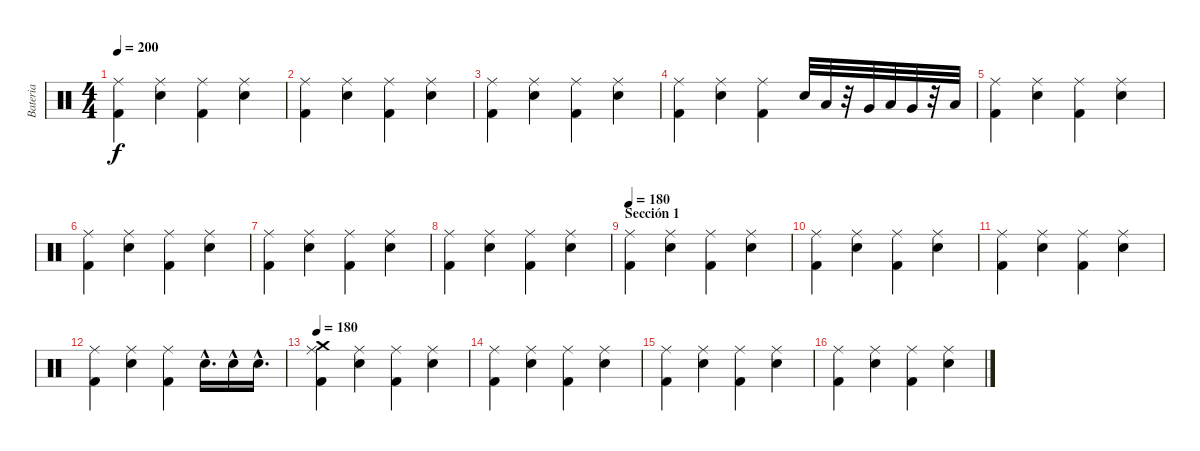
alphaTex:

\track ("Bateria" "Bateria") {instrument percussion}
\staff {score}
\articulation defaults
\ts (4 4)
\tempo 200
\clef neutral
\ks c
("Ride (middle)" "Kick (hit) 2").4{dy f} ("Ride (middle)" "Snare (hit) 2").4 ("Ride (middle)" "Kick (hit) 2").4 ("Ride (middle)" "Snare (hit) 2").4 |
("Ride (middle)" "Kick (hit) 2").4 ("Ride (middle)" "Snare (hit) 2").4 ("Ride (middle)" "Kick (hit) 2").4 ("Ride (middle)" "Snare (hit) 2").4 |
("Ride (middle)" "Kick (hit) 2").4 ("Ride (middle)" "Snare (hit) 2").4 ("Ride (middle)" "Kick (hit) 2").4 ("Ride (middle)" "Snare (hit) 2").4 |
("Ride (middle)" "Kick (hit) 2").4 ("Ride (middle)" "Snare (hit) 2").4 ("Ride (middle)" "Kick (hit) 2").4 "Snare (hit) 2".32 "Low Tom (hit)".32 r.32 "Very Low Tom (hit)".32 "Low Tom (hit)".32 "Very Low Tom (hit)".32 r.32 "Low Floor Tom (hit)".32 |
("Kick (hit) 2" "Ride (middle)").4 ("Snare (hit) 2" "Ride (middle)").4 ("Kick (hit) 2" "Ride (middle)").4 ("Ride (middle)" "Snare (hit) 2").4 |
("Ride (middle)" "Kick (hit) 2").4 ("Ride (middle)" "Snare (hit) 2").4 ("Ride (middle)" "Kick (hit) 2").4 ("Ride (middle)" "Snare (hit) 2").4 |
("Ride (middle)" "Kick (hit) 2").4 ("Ride (middle)" "Snare (hit) 2").4 ("Ride (middle)" "Kick (hit) 2").4 ("Ride (middle)" "Snare (hit) 2").4 |
("Ride (middle)" "Kick (hit) 2").4 ("Ride (middle)" "Snare (hit) 2").4 ("Ride (middle)" "Kick (hit) 2").4 ("Ride (middle)" "Snare (hit) 2").4 |
\section ("" "Sección 1")
\tempo 180
("Ride (middle)" "Kick (hit) 2").4 ("Ride (middle)" "Snare (hit) 2").4 ("Ride (middle)" "Kick (hit) 2").4 ("Ride (middle)" "Snare (hit) 2").4 |
("Ride (middle)" "Kick (hit) 2").4 ("Ride (middle)" "Snare (hit) 2").4 ("Ride (middle)" "Kick (hit) 2").4 ("Ride (middle)" "Snare (hit) 2").4 |
("Ride (middle)" "Kick (hit) 2").4 ("Ride (middle)" "Snare (hit) 2").4 ("Ride (middle)" "Kick (hit) 2").4 ("Ride (middle)" "Snare (hit) 2").4 |
("Ride (middle)" "Kick (hit) 2").4 ("Ride (middle)" "Snare (hit) 2").4 ("Ride (middle)" "Kick (hit) 2").4 "Snare (hit) 2"{hac}.16{d} "Snare (hit) 2"{hac}.16 "Snare (hit) 2"{hac}.16{d} |
\tempo 180
("Crash medium (hit)" "Ride (middle)" "Kick (hit) 2").4 ("Ride (middle)" "Snare (hit) 2").4 ("Ride (middle)" "Kick (hit) 2").4 ("Ride (middle)" "Snare (hit) 2").4 |
("Ride (middle)" "Kick (hit) 2").4 ("Ride (middle)" "Snare (hit) 2").4 ("Ride (middle)" "Kick (hit) 2").4 ("Ride (middle)" "Snare (hit) 2").4 |
("Ride (middle)" "Kick (hit) 2").4 ("Ride (middle)" "Snare (hit) 2").4 ("Ride (middle)" "Kick (hit) 2").4 ("Ride (middle)" "Snare (hit) 2").4 |
("Ride (middle)" "Kick (hit) 2").4 ("Ride (middle)" "Snare (hit) 2").4 ("Ride (middle)" "Kick (hit) 2").4 ("Ride (middle)" "Snare (hit) 2").4
